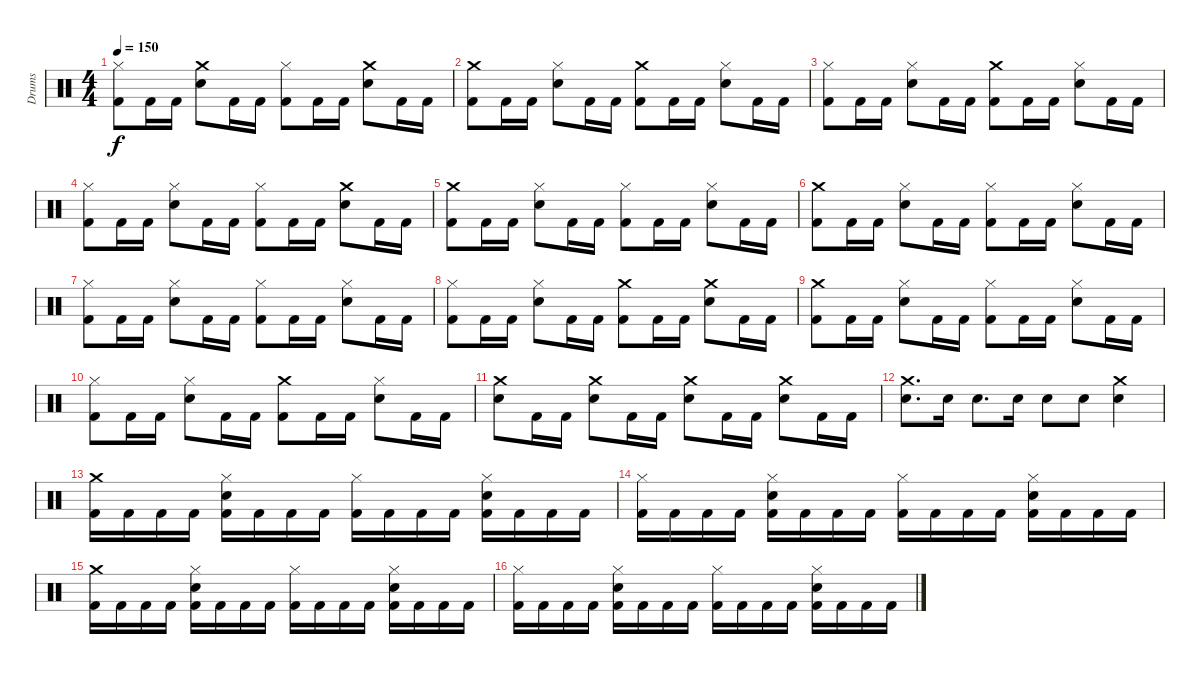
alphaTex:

\track ("Drums" "Drums") {instrument percussion}
\staff {score}
\articulation defaults
\ts (4 4)
\tempo 150
\clef neutral
\ks c
("Hi-Hat (closed)" "Kick (hit) 2").8{dy f} "Kick (hit) 2".16 "Kick (hit) 2".16 ("Crash medium (hit)" "Snare (hit) 2").8 "Kick (hit) 2".16 "Kick (hit) 2".16 ("Hi-Hat (closed)" "Kick (hit) 2").8 "Kick (hit) 2".16 "Kick (hit) 2".16 ("Crash medium (hit)" "Snare (hit) 2").8 "Kick (hit) 2".16 "Kick (hit) 2".16 |
("Crash medium (hit)" "Kick (hit) 2").8 "Kick (hit) 2".16 "Kick (hit) 2".16 ("Hi-Hat (closed)" "Snare (hit) 2").8 "Kick (hit) 2".16 "Kick (hit) 2".16 ("Crash medium (hit)" "Kick (hit) 2").8 "Kick (hit) 2".16 "Kick (hit) 2".16 ("Hi-Hat (closed)" "Snare (hit) 2").8 "Kick (hit) 2".16 "Kick (hit) 2".16 |
("Hi-Hat (closed)" "Kick (hit) 2").8 "Kick (hit) 2".16 "Kick (hit) 2".16 ("Hi-Hat (closed)" "Snare (hit) 2").8 "Kick (hit) 2".16 "Kick (hit) 2".16 ("Crash medium (hit)" "Kick (hit) 2").8 "Kick (hit) 2".16 "Kick (hit) 2".16 ("Hi-Hat (closed)" "Snare (hit) 2").8 "Kick (hit) 2".16 "Kick (hit) 2".16 |
("Hi-Hat (closed)" "Kick (hit) 2").8 "Kick (hit) 2".16 "Kick (hit) 2".16 ("Hi-Hat (closed)" "Snare (hit) 2").8 "Kick (hit) 2".16 "Kick (hit) 2".16 ("Hi-Hat (closed)" "Kick (hit) 2").8 "Kick (hit) 2".16 "Kick (hit) 2".16 ("Crash medium (hit)" "Snare (hit) 2").8 "Kick (hit) 2".16 "Kick (hit) 2".16 |
("Crash medium (hit)" "Kick (hit) 2").8 "Kick (hit) 2".16 "Kick (hit) 2".16 ("Hi-Hat (closed)" "Snare (hit) 2").8 "Kick (hit) 2".16 "Kick (hit) 2".16 ("Hi-Hat (closed)" "Kick (hit) 2").8 "Kick (hit) 2".16 "Kick (hit) 2".16 ("Hi-Hat (closed)" "Snare (hit) 2").8 "Kick (hit) 2".16 "Kick (hit) 2".16 |
("Crash medium (hit)" "Kick (hit) 2").8 "Kick (hit) 2".16 "Kick (hit) 2".16 ("Hi-Hat (closed)" "Snare (hit) 2").8 "Kick (hit) 2".16 "Kick (hit) 2".16 ("Hi-Hat (closed)" "Kick (hit) 2").8 "Kick (hit) 2".16 "Kick (hit) 2".16 ("Hi-Hat (closed)" "Snare (hit) 2").8 "Kick (hit) 2".16 "Kick (hit) 2".16 |
("Hi-Hat (closed)" "Kick (hit) 2").8 "Kick (hit) 2".16 "Kick (hit) 2".16 ("Hi-Hat (closed)" "Snare (hit) 2").8 "Kick (hit) 2".16 "Kick (hit) 2".16 ("Hi-Hat (closed)" "Kick (hit) 2").8 "Kick (hit) 2".16 "Kick (hit) 2".16 ("Hi-Hat (closed)" "Snare (hit) 2").8 "Kick (hit) 2".16 "Kick (hit) 2".16 |
("Hi-Hat (closed)" "Kick (hit) 2").8 "Kick (hit) 2".16 "Kick (hit) 2".16 ("Hi-Hat (closed)" "Snare (hit) 2").8 "Kick (hit) 2".16 "Kick (hit) 2".16 ("Crash medium (hit)" "Kick (hit) 2").8 "Kick (hit) 2".16 "Kick (hit) 2".16 ("Crash medium (hit)" "Snare (hit) 2").8 "Kick (hit) 2".16 "Kick (hit) 2".16 |
("Crash medium (hit)" "Kick (hit) 2").8 "Kick (hit) 2".16 "Kick (hit) 2".16 ("Hi-Hat (closed)" "Snare (hit) 2").8 "Kick (hit) 2".16 "Kick (hit) 2".16 ("Hi-Hat (closed)" "Kick (hit) 2").8 "Kick (hit) 2".16 "Kick (hit) 2".16 ("Hi-Hat (closed)" "Snare (hit) 2").8 "Kick (hit) 2".16 "Kick (hit) 2".16 |
("Hi-Hat (closed)" "Kick (hit) 2").8 "Kick (hit) 2".16 "Kick (hit) 2".16 ("Hi-Hat (closed)" "Snare (hit) 2").8 "Kick (hit) 2".16 "Kick (hit) 2".16 ("Crash medium (hit)" "Kick (hit) 2").8 "Kick (hit) 2".16 "Kick (hit) 2".16 ("Hi-Hat (closed)" "Snare (hit) 2").8 "Kick (hit) 2".16 "Kick (hit) 2".16 |
("Crash medium (hit)" "Snare (hit) 2").8 "Kick (hit) 2".16 "Kick (hit) 2".16 ("Crash medium (hit)" "Snare (hit) 2").8 "Kick (hit) 2".16 "Kick (hit) 2".16 ("Crash medium (hit)" "Snare (hit) 2").8 "Kick (hit) 2".16 "Kick (hit) 2".16 ("Crash medium (hit)" "Snare (hit) 2").8 "Kick (hit) 2".16 "Kick (hit) 2".16 |
("Crash medium (hit)" "Snare (hit) 2").8{d} "Snare (hit) 2".16 "Snare (hit) 2".8{d} "Snare (hit) 2".16 "Snare (hit) 2".8 "Snare (hit) 2".8 ("Crash medium (hit)" "Snare (hit) 2").4 |
("Crash medium (hit)" "Kick (hit) 2").16 "Kick (hit) 2".16 "Kick (hit) 2".16 "Kick (hit) 2".16 ("Hi-Hat (closed)" "Snare (hit) 2" "Kick (hit) 2").16 "Kick (hit) 2".16 "Kick (hit) 2".16 "Kick (hit) 2".16 ("Hi-Hat (closed)" "Kick (hit) 2").16 "Kick (hit) 2".16 "Kick (hit) 2".16 "Kick (hit) 2".16 ("Hi-Hat (closed)" "Snare (hit) 2" "Kick (hit) 2").16 "Kick (hit) 2".16 "Kick (hit) 2".16 "Kick (hit) 2".16 |
("Hi-Hat (closed)" "Kick (hit) 2").16 "Kick (hit) 2".16 "Kick (hit) 2".16 "Kick (hit) 2".16 ("Hi-Hat (closed)" "Snare (hit) 2" "Kick (hit) 2").16 "Kick (hit) 2".16 "Kick (hit) 2".16 "Kick (hit) 2".16 ("Hi-Hat (closed)" "Kick (hit) 2").16 "Kick (hit) 2".16 "Kick (hit) 2".16 "Kick (hit) 2".16 ("Hi-Hat (closed)" "Snare (hit) 2" "Kick (hit) 2").16 "Kick (hit) 2".16 "Kick (hit) 2".16 "Kick (hit) 2".16 |
("Crash medium (hit)" "Kick (hit) 2").16 "Kick (hit) 2".16 "Kick (hit) 2".16 "Kick (hit) 2".16 ("Hi-Hat (closed)" "Snare (hit) 2" "Kick (hit) 2").16 "Kick (hit) 2".16 "Kick (hit) 2".16 "Kick (hit) 2".16 ("Hi-Hat (closed)" "Kick (hit) 2").16 "Kick (hit) 2".16 "Kick (hit) 2".16 "Kick (hit) 2".16 ("Hi-Hat (closed)" "Snare (hit) 2" "Kick (hit) 2").16 "Kick (hit) 2".16 "Kick (hit) 2".16 "Kick (hit) 2".16 |
("Hi-Hat (closed)" "Kick (hit) 2").16 "Kick (hit) 2".16 "Kick (hit) 2".16 "Kick (hit) 2".16 ("Hi-Hat (closed)" "Snare (hit) 2" "Kick (hit) 2").16 "Kick (hit) 2".16 "Kick (hit) 2".16 "Kick (hit) 2".16 ("Hi-Hat (closed)" "Kick (hit) 2").16 "Kick (hit) 2".16 "Kick (hit) 2".16 "Kick (hit) 2".16 ("Hi-Hat (closed)" "Snare (hit) 2" "Kick (hit) 2").16 "Kick (hit) 2".16 "Kick (hit) 2".16 "Kick (hit) 2".16
